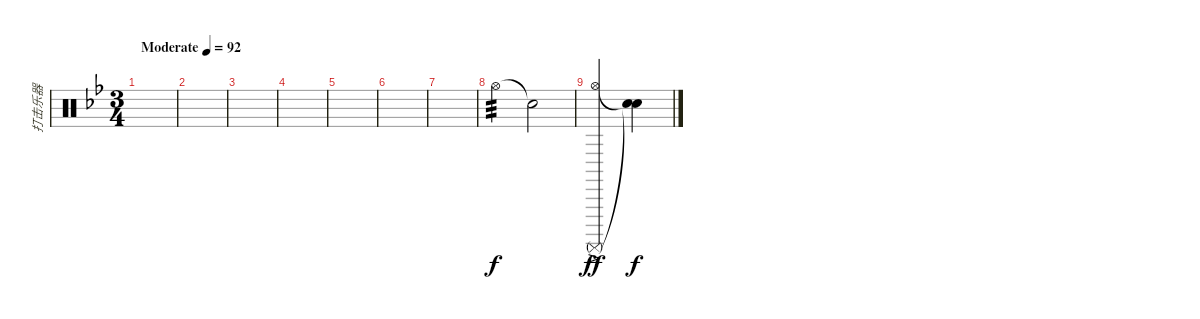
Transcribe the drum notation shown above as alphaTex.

\track ("打击乐器" "打击乐器") {instrument percussion}
\staff {score}
\articulation defaults
\ts (3 4)
\tempo (92 "Moderate")
\clef neutral
\ks bb
|
|
|
|
|
|
|
"Hi-Hat (open)".4{tp 3} "Snare (hit)"{t}.2 |
("Hi-Hat (open)" "Surdo (mute)"{ac}).2{dy ff} ("Snare (hit)"{t} "Snare (hit)"{t}).4{dy f}
